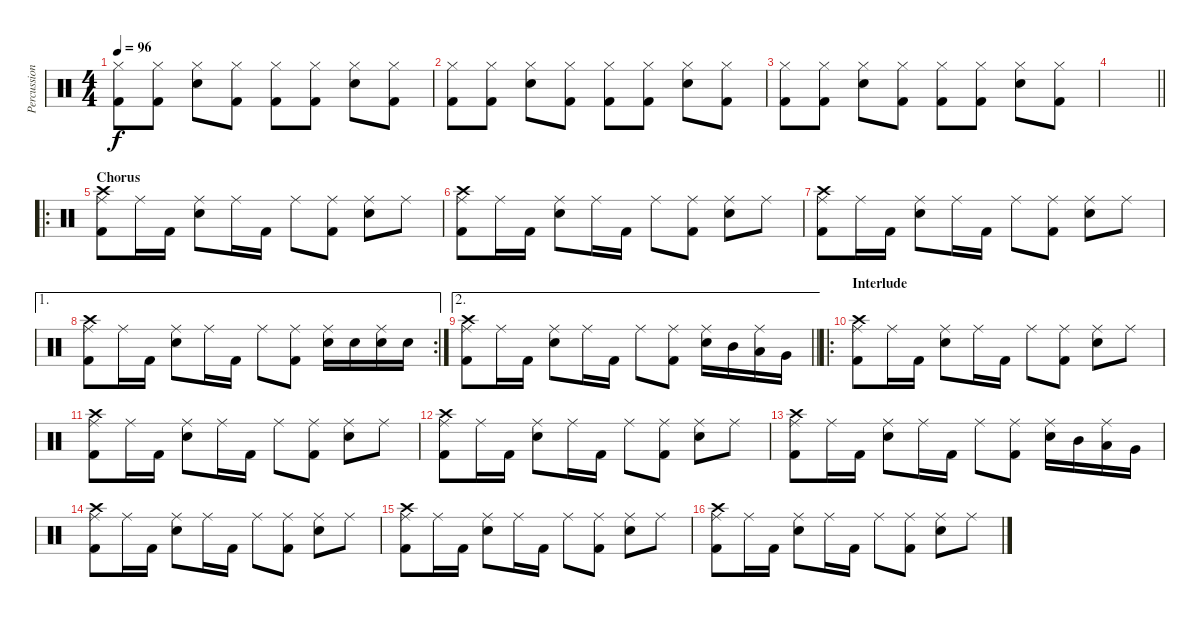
\track ("Percussion" "Percussion") {instrument percussion}
\staff {score}
\articulation defaults
\ts (4 4)
\tempo 96
\clef neutral
\ks c
("Hi-Hat (closed)" "Kick (hit) 2").8{dy f} ("Hi-Hat (closed)" "Kick (hit) 2").8 ("Hi-Hat (closed)" "Electric Snare (hit)").8 ("Hi-Hat (closed)" "Kick (hit) 2").8 ("Hi-Hat (closed)" "Kick (hit) 2").8 ("Hi-Hat (closed)" "Kick (hit) 2").8 ("Hi-Hat (closed)" "Electric Snare (hit)").8 ("Hi-Hat (closed)" "Kick (hit) 2").8 |
("Hi-Hat (closed)" "Kick (hit) 2").8 ("Hi-Hat (closed)" "Kick (hit) 2").8 ("Hi-Hat (closed)" "Electric Snare (hit)").8 ("Hi-Hat (closed)" "Kick (hit) 2").8 ("Hi-Hat (closed)" "Kick (hit) 2").8 ("Hi-Hat (closed)" "Kick (hit) 2").8 ("Hi-Hat (closed)" "Electric Snare (hit)").8 ("Hi-Hat (closed)" "Kick (hit) 2").8 |
("Hi-Hat (closed)" "Kick (hit) 2").8 ("Hi-Hat (closed)" "Kick (hit) 2").8 ("Hi-Hat (closed)" "Electric Snare (hit)").8 ("Hi-Hat (closed)" "Kick (hit) 2").8 ("Hi-Hat (closed)" "Kick (hit) 2").8 ("Hi-Hat (closed)" "Kick (hit) 2").8 ("Hi-Hat (closed)" "Electric Snare (hit)").8 ("Hi-Hat (closed)" "Kick (hit) 2").8 |
\barLineRight lightlight
|
\ro
\section ("" "Chorus")
("Crash high (hit)" "Ride (middle)" "Kick (hit) 2").8 "Ride (middle)".16 "Kick (hit) 2".16 ("Ride (middle)" "Electric Snare (hit)").8 "Ride (middle)".16 "Kick (hit) 2".16 "Ride (middle)".8 ("Ride (middle)" "Kick (hit) 2").8 ("Ride (middle)" "Electric Snare (hit)").8 "Ride (middle)".8 |
("Crash high (hit)" "Ride (middle)" "Kick (hit) 2").8 "Ride (middle)".16 "Kick (hit) 2".16 ("Ride (middle)" "Electric Snare (hit)").8 "Ride (middle)".16 "Kick (hit) 2".16 "Ride (middle)".8 ("Ride (middle)" "Kick (hit) 2").8 ("Ride (middle)" "Electric Snare (hit)").8 "Ride (middle)".8 |
("Crash high (hit)" "Ride (middle)" "Kick (hit) 2").8 "Ride (middle)".16 "Kick (hit) 2".16 ("Ride (middle)" "Electric Snare (hit)").8 "Ride (middle)".16 "Kick (hit) 2".16 "Ride (middle)".8 ("Ride (middle)" "Kick (hit) 2").8 ("Ride (middle)" "Electric Snare (hit)").8 "Ride (middle)".8 |
\ae 1
\rc 2
("Crash high (hit)" "Ride (middle)" "Kick (hit) 2").8 "Ride (middle)".16 "Kick (hit) 2".16 ("Ride (middle)" "Electric Snare (hit)").8 "Ride (middle)".16 "Kick (hit) 2".16 "Ride (middle)".8 ("Ride (middle)" "Kick (hit) 2").8 ("Ride (middle)" "Electric Snare (hit)").16 "Electric Snare (hit)".16 ("Ride (middle)" "Electric Snare (hit)").16 "Electric Snare (hit)".16 |
\ae 2
\barLineRight lightlight
("Crash high (hit)" "Ride (middle)" "Kick (hit) 2").8 "Ride (middle)".16 "Kick (hit) 2".16 ("Ride (middle)" "Electric Snare (hit)").8 "Ride (middle)".16 "Kick (hit) 2".16 "Ride (middle)".8 ("Ride (middle)" "Kick (hit) 2").8 ("Ride (middle)" "Electric Snare (hit)").16 "Mid Tom (hit)".16 ("Ride (middle)" "Low Tom (hit)").16 "Very Low Tom (hit)".16 |
\ro
\section ("" "Interlude")
("Crash high (hit)" "Ride (middle)" "Kick (hit) 2").8 "Ride (middle)".16 "Kick (hit) 2".16 ("Ride (middle)" "Electric Snare (hit)").8 "Ride (middle)".16 "Kick (hit) 2".16 "Ride (middle)".8 ("Ride (middle)" "Kick (hit) 2").8 ("Ride (middle)" "Electric Snare (hit)").8 "Ride (middle)".8 |
("Crash high (hit)" "Ride (middle)" "Kick (hit) 2").8 "Ride (middle)".16 "Kick (hit) 2".16 ("Ride (middle)" "Electric Snare (hit)").8 "Ride (middle)".16 "Kick (hit) 2".16 "Ride (middle)".8 ("Ride (middle)" "Kick (hit) 2").8 ("Ride (middle)" "Electric Snare (hit)").8 "Ride (middle)".8 |
("Crash high (hit)" "Ride (middle)" "Kick (hit) 2").8 "Ride (middle)".16 "Kick (hit) 2".16 ("Ride (middle)" "Electric Snare (hit)").8 "Ride (middle)".16 "Kick (hit) 2".16 "Ride (middle)".8 ("Ride (middle)" "Kick (hit) 2").8 ("Ride (middle)" "Electric Snare (hit)").8 "Ride (middle)".8 |
("Crash high (hit)" "Ride (middle)" "Kick (hit) 2").8 "Ride (middle)".16 "Kick (hit) 2".16 ("Ride (middle)" "Electric Snare (hit)").8 "Ride (middle)".16 "Kick (hit) 2".16 "Ride (middle)".8 ("Ride (middle)" "Kick (hit) 2").8 ("Ride (middle)" "Electric Snare (hit)").16 "Mid Tom (hit)".16 ("Ride (middle)" "Low Tom (hit)").16 "Very Low Tom (hit)".16 |
("Crash high (hit)" "Ride (middle)" "Kick (hit) 2").8 "Ride (middle)".16 "Kick (hit) 2".16 ("Ride (middle)" "Electric Snare (hit)").8 "Ride (middle)".16 "Kick (hit) 2".16 "Ride (middle)".8 ("Ride (middle)" "Kick (hit) 2").8 ("Ride (middle)" "Electric Snare (hit)").8 "Ride (middle)".8 |
("Crash high (hit)" "Ride (middle)" "Kick (hit) 2").8 "Ride (middle)".16 "Kick (hit) 2".16 ("Ride (middle)" "Electric Snare (hit)").8 "Ride (middle)".16 "Kick (hit) 2".16 "Ride (middle)".8 ("Ride (middle)" "Kick (hit) 2").8 ("Ride (middle)" "Electric Snare (hit)").8 "Ride (middle)".8 |
("Crash high (hit)" "Ride (middle)" "Kick (hit) 2").8 "Ride (middle)".16 "Kick (hit) 2".16 ("Ride (middle)" "Electric Snare (hit)").8 "Ride (middle)".16 "Kick (hit) 2".16 "Ride (middle)".8 ("Ride (middle)" "Kick (hit) 2").8 ("Ride (middle)" "Electric Snare (hit)").8 "Ride (middle)".8
